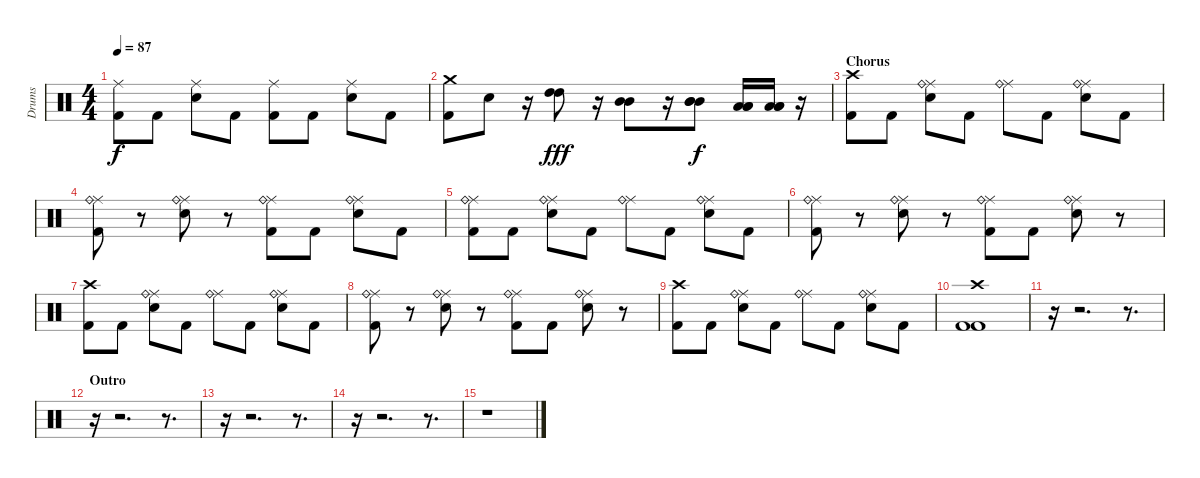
\track ("Drums" "Drums") {instrument percussion}
\staff {score}
\articulation defaults
\ts (4 4)
\tempo 87
\clef neutral
\ks c
("Ride (middle)" "Kick (hit) 2").8{dy f} "Kick (hit) 2".8 ("Ride (middle)" "Snare (hit) 2").8 "Kick (hit) 2".8 ("Ride (middle)" "Kick (hit) 2").8 "Kick (hit) 2".8 ("Ride (middle)" "Snare (hit) 2").8 "Kick (hit) 2".8 |
("Crash medium (hit)" "Kick (hit) 2").8 "Snare (hit) 2".8 r.16 ("High Tom (hit)" "High Tom (hit)").8{bd 120 dy fff} r.16 ("Mid Tom (hit)" "Mid Tom (hit)").8{bd 120} r.16 ("Mid Tom (hit)" "Mid Tom (hit)" "Mid Tom (hit)").8{dy f} ("Low Tom (hit)" "Low Tom (hit)" "Low Tom (hit)").16 ("Low Tom (hit)" "Low Tom (hit)" "Low Tom (hit)").16 r.16 |
\section ("" "Chorus")
("Crash high (hit)" "Kick (hit) 2").8 "Kick (hit) 2".8 ("Ride (middle)" "Snare (hit) 2" "Ride (bell)").8 "Kick (hit) 2".8 ("Ride (middle)" "Ride (bell)").8 "Kick (hit) 2".8 ("Ride (middle)" "Snare (hit) 2" "Ride (bell)").8 "Kick (hit) 2".8 |
("Ride (middle)" "Kick (hit) 2" "Ride (bell)").8 r.8 ("Ride (middle)" "Snare (hit) 2" "Ride (bell)").8 r.8 ("Ride (middle)" "Kick (hit) 2" "Ride (bell)").8 "Kick (hit) 2".8 ("Ride (middle)" "Snare (hit) 2" "Ride (bell)").8 "Kick (hit) 2".8 |
("Ride (middle)" "Kick (hit) 2" "Ride (bell)").8 "Kick (hit) 2".8 ("Ride (middle)" "Snare (hit) 2" "Ride (bell)").8 "Kick (hit) 2".8 ("Ride (middle)" "Ride (bell)").8 "Kick (hit) 2".8 ("Ride (middle)" "Snare (hit) 2" "Ride (bell)").8 "Kick (hit) 2".8 |
("Ride (middle)" "Kick (hit) 2" "Ride (bell)").8 r.8 ("Ride (middle)" "Snare (hit) 2" "Ride (bell)").8 r.8 ("Ride (middle)" "Kick (hit) 2" "Ride (bell)").8 "Kick (hit) 2".8 ("Ride (middle)" "Snare (hit) 2" "Ride (bell)").8 r.8 |
("Crash high (hit)" "Kick (hit) 2").8 "Kick (hit) 2".8 ("Ride (middle)" "Snare (hit) 2" "Ride (bell)").8 "Kick (hit) 2".8 ("Ride (middle)" "Ride (bell)").8 "Kick (hit) 2".8 ("Ride (middle)" "Snare (hit) 2" "Ride (bell)").8 "Kick (hit) 2".8 |
("Ride (middle)" "Kick (hit) 2" "Ride (bell)").8 r.8 ("Ride (middle)" "Snare (hit) 2" "Ride (bell)").8 r.8 ("Ride (middle)" "Kick (hit) 2" "Ride (bell)").8 "Kick (hit) 2".8 ("Ride (middle)" "Snare (hit) 2" "Ride (bell)").8 r.8 |
("Crash high (hit)" "Kick (hit) 2").8 "Kick (hit) 2".8 ("Ride (middle)" "Snare (hit) 2" "Ride (bell)").8 "Kick (hit) 2".8 ("Ride (middle)" "Ride (bell)").8 "Kick (hit) 2".8 ("Ride (middle)" "Snare (hit) 2" "Ride (bell)").8 "Kick (hit) 2".8 |
("Crash high (hit)" "Kick (hit) 2" "Kick (hit) 2").1 |
r.16 r.2{d} r.8{d} |
\section ("" "Outro")
r.16 r.2{d} r.8{d} |
r.16 r.2{d} r.8{d} |
r.16 r.2{d} r.8{d} |
r.1
